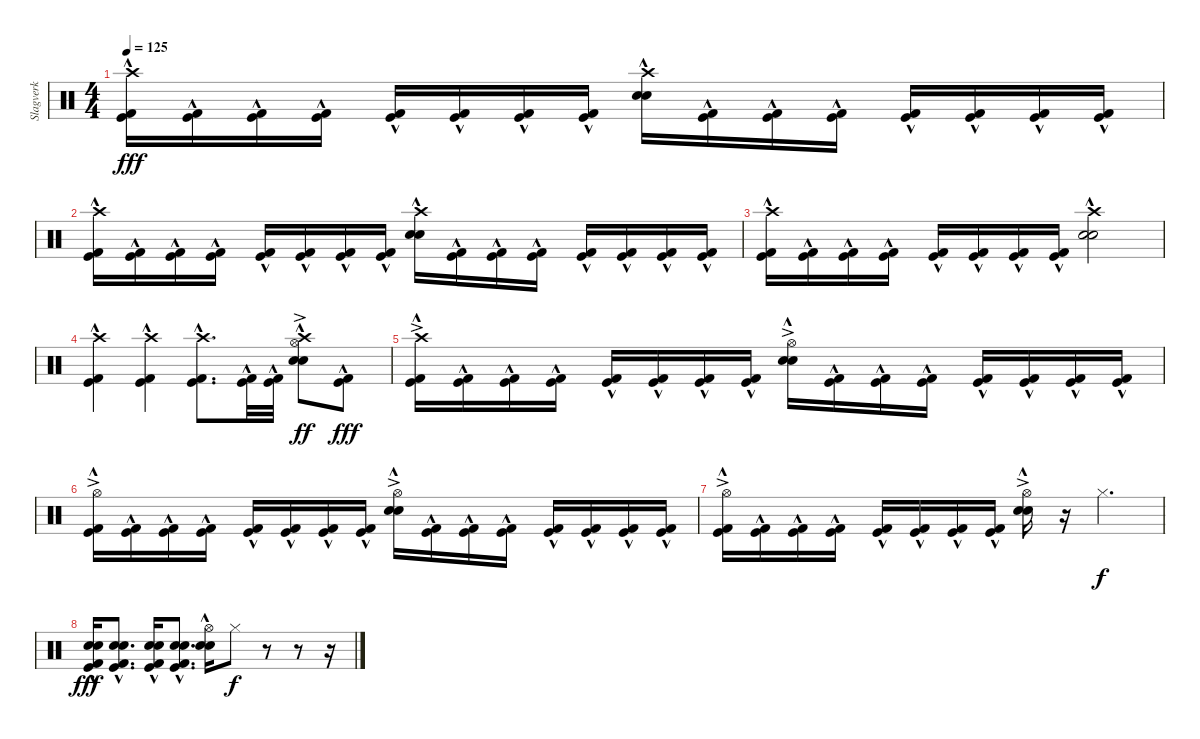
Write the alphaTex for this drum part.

\track ("Slagverk" "Slagverk") {instrument percussion}
\staff {score}
\articulation defaults
\ts (4 4)
\tempo 125
\clef neutral
\ks c
("Crash high (hit)" "Kick (hit)"{hac} "Kick (hit) 2"{hac}).16{dy fff} ("Kick (hit)"{hac} "Kick (hit) 2"{hac}).16 ("Kick (hit)"{hac} "Kick (hit) 2"{hac}).16 ("Kick (hit)"{hac} "Kick (hit) 2"{hac}).16 ("Kick (hit)"{hac} "Kick (hit) 2"{hac}).16 ("Kick (hit)"{hac} "Kick (hit) 2"{hac}).16 ("Kick (hit)"{hac} "Kick (hit) 2"{hac}).16 ("Kick (hit)"{hac} "Kick (hit) 2"{hac}).16 ("Crash high (hit)" "Electric Snare (hit)"{hac} "Snare (hit) 2").16 ("Kick (hit)"{hac} "Kick (hit) 2"{hac}).16 ("Kick (hit)"{hac} "Kick (hit) 2"{hac}).16 ("Kick (hit)"{hac} "Kick (hit) 2"{hac}).16 ("Kick (hit)"{hac} "Kick (hit) 2"{hac}).16 ("Kick (hit)"{hac} "Kick (hit) 2"{hac}).16 ("Kick (hit)"{hac} "Kick (hit) 2"{hac}).16 ("Kick (hit)"{hac} "Kick (hit) 2"{hac}).16 |
("Crash high (hit)" "Kick (hit)"{hac} "Kick (hit) 2"{hac}).16 ("Kick (hit)"{hac} "Kick (hit) 2"{hac}).16 ("Kick (hit)"{hac} "Kick (hit) 2"{hac}).16 ("Kick (hit)"{hac} "Kick (hit) 2"{hac}).16 ("Kick (hit)"{hac} "Kick (hit) 2"{hac}).16 ("Kick (hit)"{hac} "Kick (hit) 2"{hac}).16 ("Kick (hit)"{hac} "Kick (hit) 2"{hac}).16 ("Kick (hit)"{hac} "Kick (hit) 2"{hac}).16 ("Crash high (hit)" "Electric Snare (hit)"{hac} "Snare (hit) 2").16 ("Kick (hit)"{hac} "Kick (hit) 2"{hac}).16 ("Kick (hit)"{hac} "Kick (hit) 2"{hac}).16 ("Kick (hit)"{hac} "Kick (hit) 2"{hac}).16 ("Kick (hit)"{hac} "Kick (hit) 2"{hac}).16 ("Kick (hit)"{hac} "Kick (hit) 2"{hac}).16 ("Kick (hit)"{hac} "Kick (hit) 2"{hac}).16 ("Kick (hit)"{hac} "Kick (hit) 2"{hac}).16 |
("Crash high (hit)" "Kick (hit)"{hac} "Kick (hit) 2"{hac}).16 ("Kick (hit)"{hac} "Kick (hit) 2"{hac}).16 ("Kick (hit)"{hac} "Kick (hit) 2"{hac}).16 ("Kick (hit)"{hac} "Kick (hit) 2"{hac}).16 ("Kick (hit)"{hac} "Kick (hit) 2"{hac}).16 ("Kick (hit)"{hac} "Kick (hit) 2"{hac}).16 ("Kick (hit)"{hac} "Kick (hit) 2"{hac}).16 ("Kick (hit)"{hac} "Kick (hit) 2"{hac}).16 ("Crash high (hit)" "Electric Snare (hit)"{hac} "Snare (hit) 2").2 |
("Crash high (hit)" "Kick (hit)"{hac} "Kick (hit) 2"{hac}).4 ("Crash high (hit)" "Kick (hit)"{hac} "Kick (hit) 2"{hac}).4 ("Crash high (hit)" "Kick (hit)"{hac} "Kick (hit) 2"{hac}).8{d} ("Kick (hit)"{hac} "Kick (hit) 2"{hac}).32 ("Kick (hit)"{hac} "Kick (hit) 2"{hac}).32 ("Crash high (hit)" "Electric Snare (hit)"{hac} "Snare (hit) 2" "Hi-Hat (open)"{ac}).8{dy ff} ("Kick (hit)"{hac} "Kick (hit) 2"{hac}).8{dy fff} |
("Crash high (hit)"{ac} "Kick (hit)"{hac} "Kick (hit) 2"{hac}).16 ("Kick (hit)"{hac} "Kick (hit) 2"{hac}).16 ("Kick (hit)"{hac} "Kick (hit) 2"{hac}).16 ("Kick (hit)"{hac} "Kick (hit) 2"{hac}).16 ("Kick (hit)"{hac} "Kick (hit) 2"{hac}).16 ("Kick (hit)"{hac} "Kick (hit) 2"{hac}).16 ("Kick (hit)"{hac} "Kick (hit) 2"{hac}).16 ("Kick (hit)"{hac} "Kick (hit) 2"{hac}).16 ("Hi-Hat (open)"{ac} "Electric Snare (hit)"{hac} "Snare (hit) 2").16 ("Kick (hit)"{hac} "Kick (hit) 2"{hac}).16 ("Kick (hit)"{hac} "Kick (hit) 2"{hac}).16 ("Kick (hit)"{hac} "Kick (hit) 2"{hac}).16 ("Kick (hit)"{hac} "Kick (hit) 2"{hac}).16 ("Kick (hit)"{hac} "Kick (hit) 2"{hac}).16 ("Kick (hit)"{hac} "Kick (hit) 2"{hac}).16 ("Kick (hit)"{hac} "Kick (hit) 2"{hac}).16 |
("Hi-Hat (open)"{ac} "Kick (hit)"{hac} "Kick (hit) 2"{hac}).16 ("Kick (hit)"{hac} "Kick (hit) 2"{hac}).16 ("Kick (hit)"{hac} "Kick (hit) 2"{hac}).16 ("Kick (hit)"{hac} "Kick (hit) 2"{hac}).16 ("Kick (hit)"{hac} "Kick (hit) 2"{hac}).16 ("Kick (hit)"{hac} "Kick (hit) 2"{hac}).16 ("Kick (hit)"{hac} "Kick (hit) 2"{hac}).16 ("Kick (hit)"{hac} "Kick (hit) 2"{hac}).16 ("Hi-Hat (open)"{ac} "Electric Snare (hit)"{hac} "Snare (hit) 2").16 ("Kick (hit)"{hac} "Kick (hit) 2"{hac}).16 ("Kick (hit)"{hac} "Kick (hit) 2"{hac}).16 ("Kick (hit)"{hac} "Kick (hit) 2"{hac}).16 ("Kick (hit)"{hac} "Kick (hit) 2"{hac}).16 ("Kick (hit)"{hac} "Kick (hit) 2"{hac}).16 ("Kick (hit)"{hac} "Kick (hit) 2"{hac}).16 ("Kick (hit)"{hac} "Kick (hit) 2"{hac}).16 |
("Hi-Hat (open)"{ac} "Kick (hit)"{hac} "Kick (hit) 2"{hac}).16 ("Kick (hit)"{hac} "Kick (hit) 2"{hac}).16 ("Kick (hit)"{hac} "Kick (hit) 2"{hac}).16 ("Kick (hit)"{hac} "Kick (hit) 2"{hac}).16 ("Kick (hit)"{hac} "Kick (hit) 2"{hac}).16 ("Kick (hit)"{hac} "Kick (hit) 2"{hac}).16 ("Kick (hit)"{hac} "Kick (hit) 2"{hac}).16 ("Kick (hit)"{hac} "Kick (hit) 2"{hac}).16 ("Hi-Hat (open)"{ac} "Electric Snare (hit)"{hac} "Snare (hit) 2").16 r.16 "Hi-Hat (closed)".4{d dy f} |
("Electric Snare (hit)" "Snare (hit) 2" "Kick (hit)"{hac} "Kick (hit) 2"{hac}).16{dy fff} ("Electric Snare (hit)" "Snare (hit) 2" "Kick (hit)"{hac} "Kick (hit) 2"{hac}).8{d} ("Electric Snare (hit)" "Snare (hit) 2" "Kick (hit)"{hac} "Kick (hit) 2"{hac}).16 ("Electric Snare (hit)" "Snare (hit) 2" "Kick (hit)"{hac} "Kick (hit) 2"{hac}).8{d} ("Hi-Hat (open)" "Electric Snare (hit)"{hac} "Snare (hit) 2").16 "Hi-Hat (closed)".8{dy f} r.8 r.8 r.16
